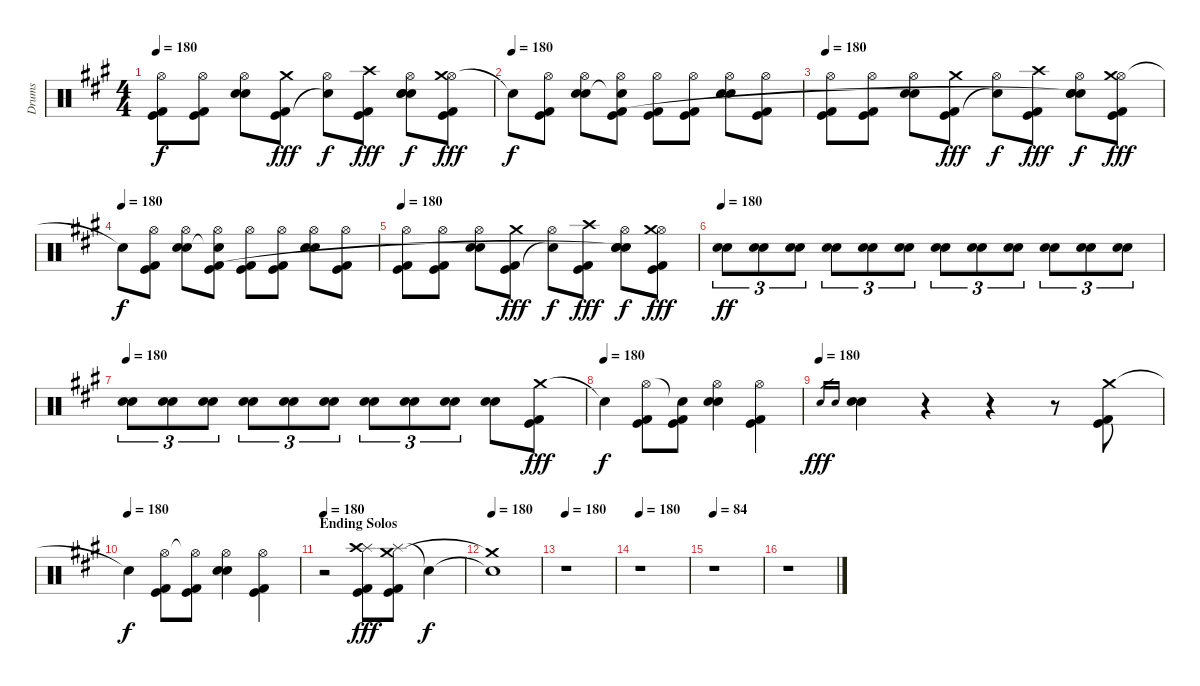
\track ("Drums" "Drums") {instrument percussion}
\staff {score}
\articulation defaults
\ts (4 4)
\tempo 180
\clef neutral
\ks a
("Hi-Hat (open)" "Kick (hit)" "Kick (hit) 2").8{dy f} ("Hi-Hat (open)" "Kick (hit)" "Kick (hit) 2").8 ("Hi-Hat (open)" "Electric Snare (hit)" "Snare (hit) 2").8 ("Crash medium (hit)" "Kick (hit)" "Kick (hit) 2").8{dy fff} ("Hi-Hat (open)" "Snare (hit)"{t}).8{dy f} ("Crash high (hit)" "Kick (hit)" "Kick (hit) 2").8{dy fff} ("Hi-Hat (open)" "Electric Snare (hit)" "Snare (hit) 2" "Snare (hit)"{t}).8{dy f} ("Hi-Hat (open)" "Crash medium (hit)" "Kick (hit)" "Kick (hit) 2").8{dy fff} |
\tempo (180)
"Snare (hit)"{t}.8{dy f} ("Hi-Hat (open)" "Kick (hit)" "Kick (hit) 2").8 ("Hi-Hat (open)" "Electric Snare (hit)" "Snare (hit) 2").8 ("Hi-Hat (open)" "Snare (hit)"{t} "Kick (hit)" "Kick (hit) 2").8 ("Hi-Hat (open)" "Kick (hit)" "Kick (hit) 2").8 ("Hi-Hat (open)" "Kick (hit)" "Kick (hit) 2").8 ("Hi-Hat (open)" "Electric Snare (hit)" "Snare (hit) 2").8 ("Hi-Hat (open)" "Kick (hit)" "Kick (hit) 2").8 |
\tempo 180
("Hi-Hat (open)" "Kick (hit)" "Kick (hit) 2").8 ("Hi-Hat (open)" "Kick (hit)" "Kick (hit) 2").8 ("Hi-Hat (open)" "Electric Snare (hit)" "Snare (hit) 2").8 ("Crash medium (hit)" "Kick (hit)" "Kick (hit) 2").8{dy fff} ("Hi-Hat (open)" "Snare (hit)"{t}).8{dy f} ("Crash high (hit)" "Kick (hit)" "Kick (hit) 2").8{dy fff} ("Hi-Hat (open)" "Electric Snare (hit)" "Snare (hit) 2" "Snare (hit)"{t}).8{dy f} ("Hi-Hat (open)" "Crash medium (hit)" "Kick (hit)" "Kick (hit) 2").8{dy fff} |
\tempo (180)
"Snare (hit)"{t}.8{dy f} ("Hi-Hat (open)" "Kick (hit)" "Kick (hit) 2").8 ("Hi-Hat (open)" "Electric Snare (hit)" "Snare (hit) 2").8 ("Hi-Hat (open)" "Snare (hit)"{t} "Kick (hit)" "Kick (hit) 2").8 ("Hi-Hat (open)" "Kick (hit)" "Kick (hit) 2").8 ("Hi-Hat (open)" "Kick (hit)" "Kick (hit) 2").8 ("Hi-Hat (open)" "Electric Snare (hit)" "Snare (hit) 2").8 ("Hi-Hat (open)" "Kick (hit)" "Kick (hit) 2").8 |
\tempo 180
("Hi-Hat (open)" "Kick (hit)" "Kick (hit) 2").8 ("Hi-Hat (open)" "Kick (hit)" "Kick (hit) 2").8 ("Hi-Hat (open)" "Electric Snare (hit)" "Snare (hit) 2").8 ("Crash medium (hit)" "Kick (hit)" "Kick (hit) 2").8{dy fff} ("Hi-Hat (open)" "Snare (hit)"{t}).8{dy f} ("Crash high (hit)" "Kick (hit)" "Kick (hit) 2").8{dy fff} ("Hi-Hat (open)" "Electric Snare (hit)" "Snare (hit) 2" "Snare (hit)"{t}).8{dy f} ("Hi-Hat (open)" "Crash medium (hit)" "Kick (hit)" "Kick (hit) 2").8{dy fff} |
\tempo 180
("Electric Snare (hit)" "Snare (hit) 2").8{tu (3 2) dy ff} ("Electric Snare (hit)" "Snare (hit) 2").8{tu (3 2)} ("Electric Snare (hit)" "Snare (hit) 2").8{tu (3 2)} ("Electric Snare (hit)" "Snare (hit) 2").8{tu (3 2)} ("Electric Snare (hit)" "Snare (hit) 2").8{tu (3 2)} ("Electric Snare (hit)" "Snare (hit) 2").8{tu (3 2)} ("Electric Snare (hit)" "Snare (hit) 2").8{tu (3 2)} ("Electric Snare (hit)" "Snare (hit) 2").8{tu (3 2)} ("Electric Snare (hit)" "Snare (hit) 2").8{tu (3 2)} ("Electric Snare (hit)" "Snare (hit) 2").8{tu (3 2)} ("Electric Snare (hit)" "Snare (hit) 2").8{tu (3 2)} ("Electric Snare (hit)" "Snare (hit) 2").8{tu (3 2)} |
\tempo 180
("Electric Snare (hit)" "Snare (hit) 2").8{tu (3 2)} ("Electric Snare (hit)" "Snare (hit) 2").8{tu (3 2)} ("Electric Snare (hit)" "Snare (hit) 2").8{tu (3 2)} ("Electric Snare (hit)" "Snare (hit) 2").8{tu (3 2)} ("Electric Snare (hit)" "Snare (hit) 2").8{tu (3 2)} ("Electric Snare (hit)" "Snare (hit) 2").8{tu (3 2)} ("Electric Snare (hit)" "Snare (hit) 2").8{tu (3 2)} ("Electric Snare (hit)" "Snare (hit) 2").8{tu (3 2)} ("Electric Snare (hit)" "Snare (hit) 2").8{tu (3 2)} ("Electric Snare (hit)" "Snare (hit) 2").8 ("Crash medium (hit)" "Kick (hit)" "Kick (hit) 2").8{dy fff} |
\tempo (180)
"Snare (hit)"{t}.4{dy f} ("Hi-Hat (open)" "Kick (hit)" "Kick (hit) 2").8 ("Snare (hit)"{t} "Kick (hit)" "Kick (hit) 2").8 ("Hi-Hat (open)" "Electric Snare (hit)" "Snare (hit) 2").4 ("Hi-Hat (open)" "Kick (hit)" "Kick (hit) 2").4 |
\tempo (180)
"Electric Snare (hit)".16{gr dy fff} "Snare (hit) 2".16{gr} ("Electric Snare (hit)" "Snare (hit) 2").4 r.4 r.4 r.8 ("Crash medium (hit)" "Kick (hit)" "Kick (hit) 2").8 |
\tempo (180)
"Snare (hit)"{t}.4{dy f} ("Hi-Hat (open)" "Kick (hit)" "Kick (hit) 2").8 ("Hi-Hat (open)"{t} "Kick (hit)" "Kick (hit) 2").8 ("Hi-Hat (open)" "Electric Snare (hit)" "Snare (hit) 2").4 ("Hi-Hat (open)" "Kick (hit)" "Kick (hit) 2").4 |
\section ("" "Ending Solos")
\tempo 180
r.2 ("Splash (hit)" "Crash high (hit)" "Kick (hit)" "Kick (hit) 2").8{dy fff} ("Splash (hit)" "Crash medium (hit)" "Kick (hit)" "Kick (hit) 2").8 "Snare (hit)"{t}.4{dy f} |
\tempo 180
("Snare (hit)"{t} "Crash medium (hit)"{t}).1 |
\tempo 180
r.1 |
\tempo 180
r.1 |
\tempo 84
r.1 |
r.1
